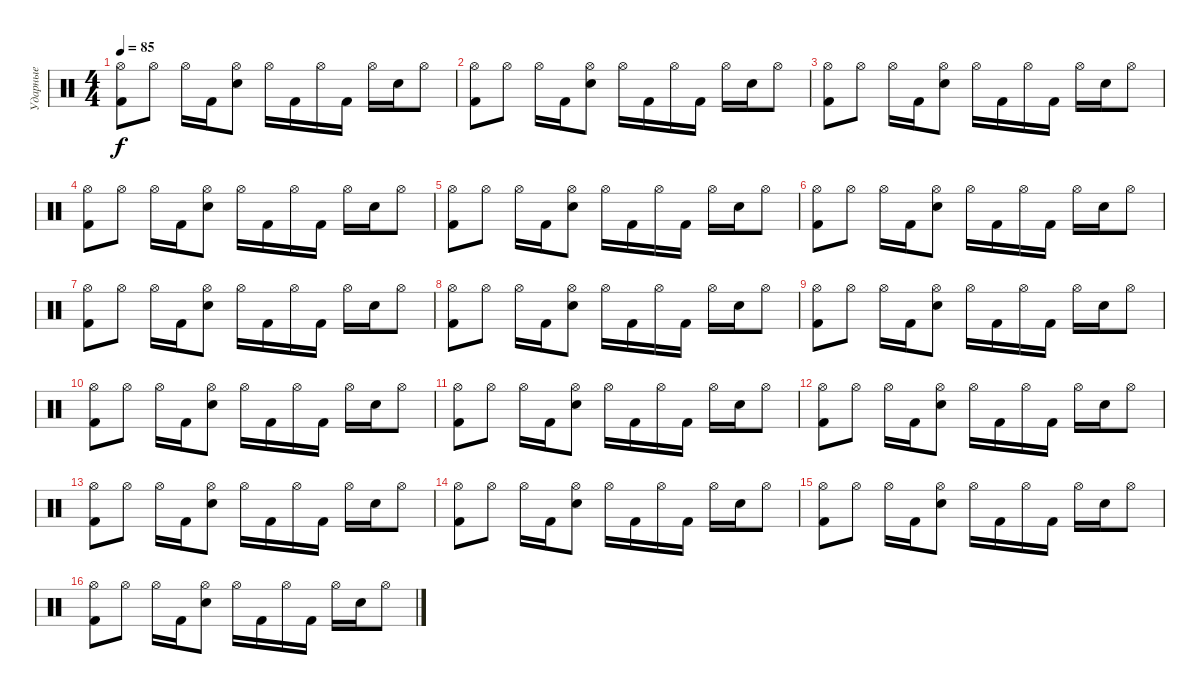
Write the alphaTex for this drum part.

\track ("Ударные" "Ударные") {instrument percussion}
\staff {score}
\articulation defaults
\ts (4 4)
\tempo 85
\clef neutral
\ks c
("Hi-Hat (open)" "Kick (hit) 2").8{dy f} "Hi-Hat (open)".8 "Hi-Hat (open)".16 "Kick (hit) 2".16 ("Hi-Hat (open)" "Electric Snare (hit)").8 "Hi-Hat (open)".16 "Kick (hit) 2".16 "Hi-Hat (open)".16 "Kick (hit) 2".16 "Hi-Hat (open)".16 "Electric Snare (hit)".16 "Hi-Hat (open)".8 |
("Hi-Hat (open)" "Kick (hit) 2").8 "Hi-Hat (open)".8 "Hi-Hat (open)".16 "Kick (hit) 2".16 ("Hi-Hat (open)" "Electric Snare (hit)").8 "Hi-Hat (open)".16 "Kick (hit) 2".16 "Hi-Hat (open)".16 "Kick (hit) 2".16 "Hi-Hat (open)".16 "Electric Snare (hit)".16 "Hi-Hat (open)".8 |
("Hi-Hat (open)" "Kick (hit) 2").8 "Hi-Hat (open)".8 "Hi-Hat (open)".16 "Kick (hit) 2".16 ("Hi-Hat (open)" "Electric Snare (hit)").8 "Hi-Hat (open)".16 "Kick (hit) 2".16 "Hi-Hat (open)".16 "Kick (hit) 2".16 "Hi-Hat (open)".16 "Electric Snare (hit)".16 "Hi-Hat (open)".8 |
("Hi-Hat (open)" "Kick (hit) 2").8 "Hi-Hat (open)".8 "Hi-Hat (open)".16 "Kick (hit) 2".16 ("Hi-Hat (open)" "Electric Snare (hit)").8 "Hi-Hat (open)".16 "Kick (hit) 2".16 "Hi-Hat (open)".16 "Kick (hit) 2".16 "Hi-Hat (open)".16 "Electric Snare (hit)".16 "Hi-Hat (open)".8 |
("Hi-Hat (open)" "Kick (hit) 2").8 "Hi-Hat (open)".8 "Hi-Hat (open)".16 "Kick (hit) 2".16 ("Hi-Hat (open)" "Electric Snare (hit)").8 "Hi-Hat (open)".16 "Kick (hit) 2".16 "Hi-Hat (open)".16 "Kick (hit) 2".16 "Hi-Hat (open)".16 "Electric Snare (hit)".16 "Hi-Hat (open)".8 |
("Hi-Hat (open)" "Kick (hit) 2").8 "Hi-Hat (open)".8 "Hi-Hat (open)".16 "Kick (hit) 2".16 ("Hi-Hat (open)" "Electric Snare (hit)").8 "Hi-Hat (open)".16 "Kick (hit) 2".16 "Hi-Hat (open)".16 "Kick (hit) 2".16 "Hi-Hat (open)".16 "Electric Snare (hit)".16 "Hi-Hat (open)".8 |
("Hi-Hat (open)" "Kick (hit) 2").8 "Hi-Hat (open)".8 "Hi-Hat (open)".16 "Kick (hit) 2".16 ("Hi-Hat (open)" "Electric Snare (hit)").8 "Hi-Hat (open)".16 "Kick (hit) 2".16 "Hi-Hat (open)".16 "Kick (hit) 2".16 "Hi-Hat (open)".16 "Electric Snare (hit)".16 "Hi-Hat (open)".8 |
("Hi-Hat (open)" "Kick (hit) 2").8 "Hi-Hat (open)".8 "Hi-Hat (open)".16 "Kick (hit) 2".16 ("Hi-Hat (open)" "Electric Snare (hit)").8 "Hi-Hat (open)".16 "Kick (hit) 2".16 "Hi-Hat (open)".16 "Kick (hit) 2".16 "Hi-Hat (open)".16 "Electric Snare (hit)".16 "Hi-Hat (open)".8 |
("Hi-Hat (open)" "Kick (hit) 2").8 "Hi-Hat (open)".8 "Hi-Hat (open)".16 "Kick (hit) 2".16 ("Hi-Hat (open)" "Electric Snare (hit)").8 "Hi-Hat (open)".16 "Kick (hit) 2".16 "Hi-Hat (open)".16 "Kick (hit) 2".16 "Hi-Hat (open)".16 "Electric Snare (hit)".16 "Hi-Hat (open)".8 |
("Hi-Hat (open)" "Kick (hit) 2").8 "Hi-Hat (open)".8 "Hi-Hat (open)".16 "Kick (hit) 2".16 ("Hi-Hat (open)" "Electric Snare (hit)").8 "Hi-Hat (open)".16 "Kick (hit) 2".16 "Hi-Hat (open)".16 "Kick (hit) 2".16 "Hi-Hat (open)".16 "Electric Snare (hit)".16 "Hi-Hat (open)".8 |
("Hi-Hat (open)" "Kick (hit) 2").8 "Hi-Hat (open)".8 "Hi-Hat (open)".16 "Kick (hit) 2".16 ("Hi-Hat (open)" "Electric Snare (hit)").8 "Hi-Hat (open)".16 "Kick (hit) 2".16 "Hi-Hat (open)".16 "Kick (hit) 2".16 "Hi-Hat (open)".16 "Electric Snare (hit)".16 "Hi-Hat (open)".8 |
("Hi-Hat (open)" "Kick (hit) 2").8 "Hi-Hat (open)".8 "Hi-Hat (open)".16 "Kick (hit) 2".16 ("Hi-Hat (open)" "Electric Snare (hit)").8 "Hi-Hat (open)".16 "Kick (hit) 2".16 "Hi-Hat (open)".16 "Kick (hit) 2".16 "Hi-Hat (open)".16 "Electric Snare (hit)".16 "Hi-Hat (open)".8 |
("Hi-Hat (open)" "Kick (hit) 2").8 "Hi-Hat (open)".8 "Hi-Hat (open)".16 "Kick (hit) 2".16 ("Hi-Hat (open)" "Electric Snare (hit)").8 "Hi-Hat (open)".16 "Kick (hit) 2".16 "Hi-Hat (open)".16 "Kick (hit) 2".16 "Hi-Hat (open)".16 "Electric Snare (hit)".16 "Hi-Hat (open)".8 |
("Hi-Hat (open)" "Kick (hit) 2").8 "Hi-Hat (open)".8 "Hi-Hat (open)".16 "Kick (hit) 2".16 ("Hi-Hat (open)" "Electric Snare (hit)").8 "Hi-Hat (open)".16 "Kick (hit) 2".16 "Hi-Hat (open)".16 "Kick (hit) 2".16 "Hi-Hat (open)".16 "Electric Snare (hit)".16 "Hi-Hat (open)".8 |
("Hi-Hat (open)" "Kick (hit) 2").8 "Hi-Hat (open)".8 "Hi-Hat (open)".16 "Kick (hit) 2".16 ("Hi-Hat (open)" "Electric Snare (hit)").8 "Hi-Hat (open)".16 "Kick (hit) 2".16 "Hi-Hat (open)".16 "Kick (hit) 2".16 "Hi-Hat (open)".16 "Electric Snare (hit)".16 "Hi-Hat (open)".8 |
("Hi-Hat (open)" "Kick (hit) 2").8 "Hi-Hat (open)".8 "Hi-Hat (open)".16 "Kick (hit) 2".16 ("Hi-Hat (open)" "Electric Snare (hit)").8 "Hi-Hat (open)".16 "Kick (hit) 2".16 "Hi-Hat (open)".16 "Kick (hit) 2".16 "Hi-Hat (open)".16 "Electric Snare (hit)".16 "Hi-Hat (open)".8
